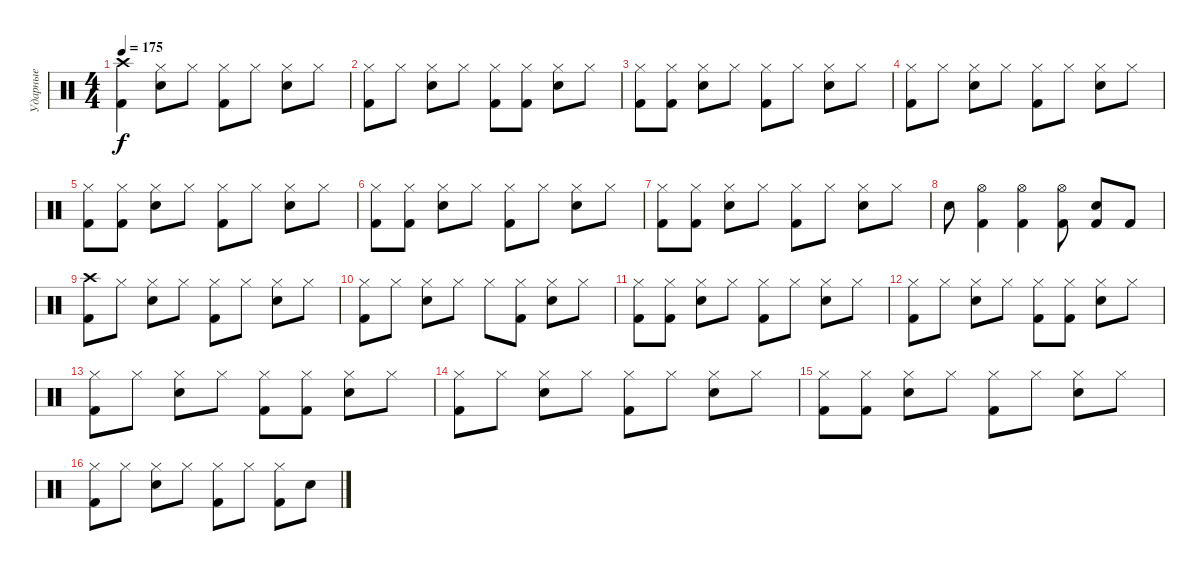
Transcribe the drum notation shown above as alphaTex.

\track ("Ударные" "Ударные") {instrument percussion}
\staff
\articulation defaults
\ts (4 4)
\tempo 175
\clef neutral
\ks c
("Kick (hit) 2" "Crash high (hit)").4{dy f} ("Snare (hit) 2" "Hi-Hat (closed)").8 "Hi-Hat (closed)".8 ("Kick (hit) 2" "Hi-Hat (closed)").8 "Hi-Hat (closed)".8 ("Snare (hit) 2" "Hi-Hat (closed)").8 "Hi-Hat (closed)".8 |
("Kick (hit) 2" "Hi-Hat (closed)").8 "Hi-Hat (closed)".8 ("Snare (hit) 2" "Hi-Hat (closed)").8 "Hi-Hat (closed)".8 ("Kick (hit) 2" "Hi-Hat (closed)").8 ("Kick (hit) 2" "Hi-Hat (closed)").8 ("Snare (hit) 2" "Hi-Hat (closed)").8 "Hi-Hat (closed)".8 |
("Kick (hit) 2" "Hi-Hat (closed)").8 ("Kick (hit) 2" "Hi-Hat (closed)").8 ("Snare (hit) 2" "Hi-Hat (closed)").8 "Hi-Hat (closed)".8 ("Kick (hit) 2" "Hi-Hat (closed)").8 "Hi-Hat (closed)".8 ("Snare (hit) 2" "Hi-Hat (closed)").8 "Hi-Hat (closed)".8 |
("Kick (hit) 2" "Hi-Hat (closed)").8 "Hi-Hat (closed)".8 ("Snare (hit) 2" "Hi-Hat (closed)").8 "Hi-Hat (closed)".8 ("Kick (hit) 2" "Hi-Hat (closed)").8 "Hi-Hat (closed)".8 ("Snare (hit) 2" "Hi-Hat (closed)").8 "Hi-Hat (closed)".8 |
("Kick (hit) 2" "Hi-Hat (closed)").8 ("Kick (hit) 2" "Hi-Hat (closed)").8 ("Snare (hit) 2" "Hi-Hat (closed)").8 "Hi-Hat (closed)".8 ("Kick (hit) 2" "Hi-Hat (closed)").8 "Hi-Hat (closed)".8 ("Snare (hit) 2" "Hi-Hat (closed)").8 "Hi-Hat (closed)".8 |
("Kick (hit) 2" "Hi-Hat (closed)").8 ("Kick (hit) 2" "Hi-Hat (closed)").8 ("Snare (hit) 2" "Hi-Hat (closed)").8 "Hi-Hat (closed)".8 ("Kick (hit) 2" "Hi-Hat (closed)").8 "Hi-Hat (closed)".8 ("Snare (hit) 2" "Hi-Hat (closed)").8 "Hi-Hat (closed)".8 |
("Kick (hit) 2" "Hi-Hat (closed)").8 ("Kick (hit) 2" "Hi-Hat (closed)").8 ("Snare (hit) 2" "Hi-Hat (closed)").8 "Hi-Hat (closed)".8 ("Kick (hit) 2" "Hi-Hat (closed)").8 "Hi-Hat (closed)".8 ("Snare (hit) 2" "Hi-Hat (closed)").8 "Hi-Hat (closed)".8 |
"Electric Snare (hit)".8 ("Kick (hit) 2" "Hi-Hat (open)").4 ("Kick (hit) 2" "Hi-Hat (open)").4 ("Kick (hit) 2" "Hi-Hat (open)").8 ("Kick (hit) 2" "Electric Snare (hit)").8 "Kick (hit) 2".8 |
("Kick (hit) 2" "Crash high (hit)").8 "Hi-Hat (closed)".8 ("Snare (hit) 2" "Hi-Hat (closed)").8 "Hi-Hat (closed)".8 ("Kick (hit) 2" "Hi-Hat (closed)").8 "Hi-Hat (closed)".8 ("Snare (hit) 2" "Hi-Hat (closed)").8 "Hi-Hat (closed)".8 |
("Kick (hit) 2" "Hi-Hat (closed)").8 "Hi-Hat (closed)".8 ("Snare (hit) 2" "Hi-Hat (closed)").8 "Hi-Hat (closed)".8 "Hi-Hat (closed)".8 ("Kick (hit) 2" "Hi-Hat (closed)").8 ("Snare (hit) 2" "Hi-Hat (closed)").8 "Hi-Hat (closed)".8 |
("Kick (hit) 2" "Hi-Hat (closed)").8 ("Kick (hit) 2" "Hi-Hat (closed)").8 ("Snare (hit) 2" "Hi-Hat (closed)").8 "Hi-Hat (closed)".8 ("Kick (hit) 2" "Hi-Hat (closed)").8 "Hi-Hat (closed)".8 ("Snare (hit) 2" "Hi-Hat (closed)").8 "Hi-Hat (closed)".8 |
("Kick (hit) 2" "Hi-Hat (closed)").8 "Hi-Hat (closed)".8 ("Snare (hit) 2" "Hi-Hat (closed)").8 "Hi-Hat (closed)".8 ("Kick (hit) 2" "Hi-Hat (closed)").8 ("Kick (hit) 2" "Hi-Hat (closed)").8 ("Snare (hit) 2" "Hi-Hat (closed)").8 "Hi-Hat (closed)".8 |
("Kick (hit) 2" "Hi-Hat (closed)").8 "Hi-Hat (closed)".8 ("Snare (hit) 2" "Hi-Hat (closed)").8 "Hi-Hat (closed)".8 ("Kick (hit) 2" "Hi-Hat (closed)").8 ("Kick (hit) 2" "Hi-Hat (closed)").8 ("Snare (hit) 2" "Hi-Hat (closed)").8 "Hi-Hat (closed)".8 |
("Kick (hit) 2" "Hi-Hat (closed)").8 "Hi-Hat (closed)".8 ("Snare (hit) 2" "Hi-Hat (closed)").8 "Hi-Hat (closed)".8 ("Kick (hit) 2" "Hi-Hat (closed)").8 "Hi-Hat (closed)".8 ("Snare (hit) 2" "Hi-Hat (closed)").8 "Hi-Hat (closed)".8 |
("Kick (hit) 2" "Hi-Hat (closed)").8 ("Kick (hit) 2" "Hi-Hat (closed)").8 ("Snare (hit) 2" "Hi-Hat (closed)").8 "Hi-Hat (closed)".8 ("Kick (hit) 2" "Hi-Hat (closed)").8 "Hi-Hat (closed)".8 ("Snare (hit) 2" "Hi-Hat (closed)").8 "Hi-Hat (closed)".8 |
("Kick (hit) 2" "Hi-Hat (closed)").8 "Hi-Hat (closed)".8 ("Snare (hit) 2" "Hi-Hat (closed)").8 "Hi-Hat (closed)".8 ("Kick (hit) 2" "Hi-Hat (closed)").8 "Hi-Hat (closed)".8 ("Kick (hit) 2" "Hi-Hat (closed)").8 "Electric Snare (hit)".8
